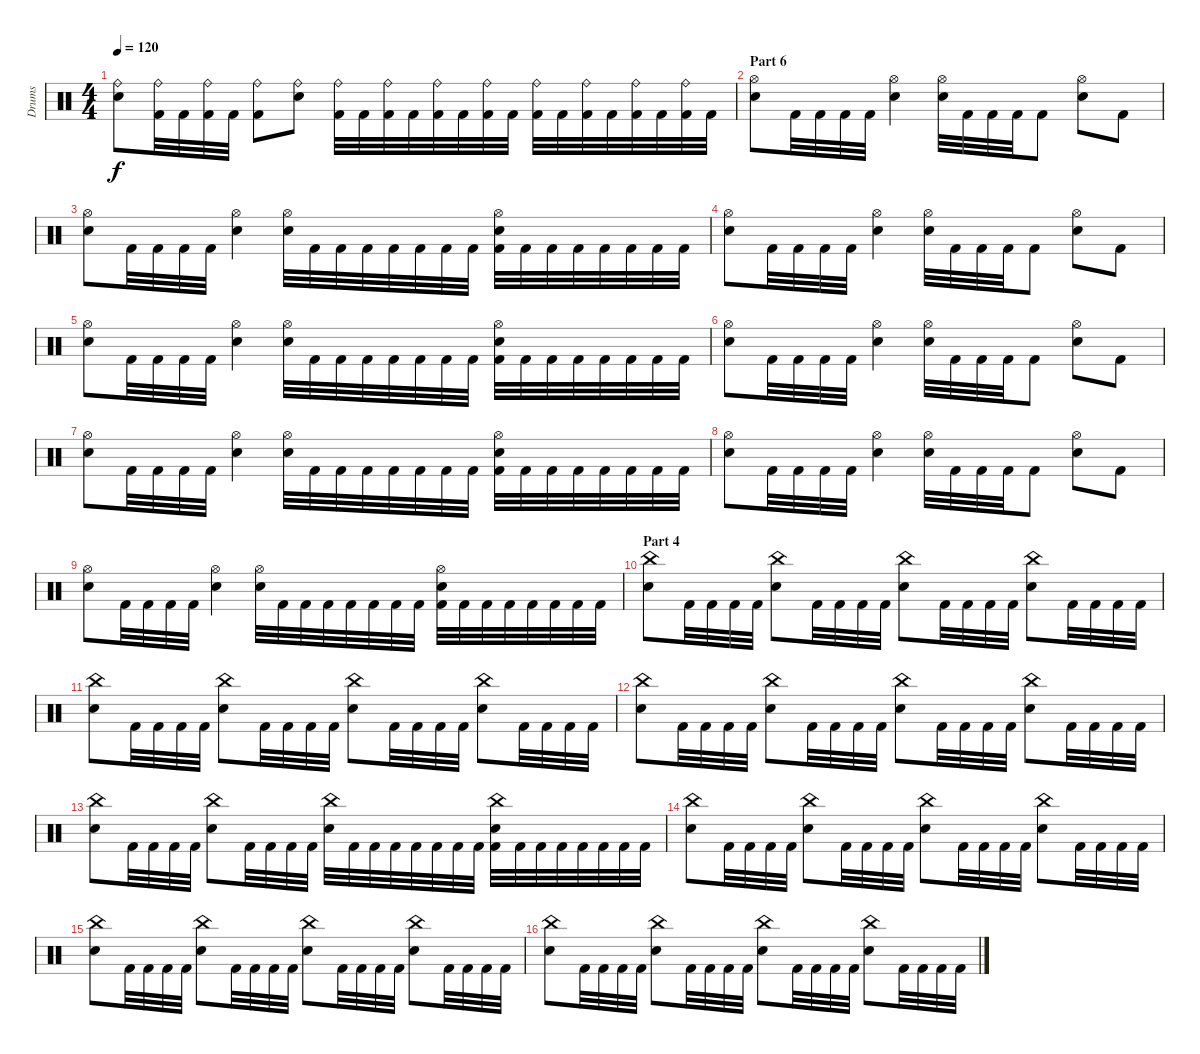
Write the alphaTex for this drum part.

\track ("Drums" "Drums") {instrument percussion}
\staff {score}
\articulation defaults
\ts (4 4)
\tempo 120
\clef neutral
\ks c
("Ride (bell)" "Electric Snare (hit)").8{dy f} ("Ride (bell)" "Kick (hit) 2").32 "Kick (hit) 2".32 ("Ride (bell)" "Kick (hit) 2").32 "Kick (hit) 2".32 ("Ride (bell)" "Kick (hit) 2").8 ("Ride (bell)" "Electric Snare (hit)").8 ("Ride (bell)" "Kick (hit) 2").32 "Kick (hit) 2".32 ("Ride (bell)" "Kick (hit) 2").32 "Kick (hit) 2".32 ("Ride (bell)" "Kick (hit) 2").32 "Kick (hit) 2".32 ("Ride (bell)" "Kick (hit) 2").32 "Kick (hit) 2".32 ("Ride (bell)" "Kick (hit) 2").32 "Kick (hit) 2".32 ("Ride (bell)" "Kick (hit) 2").32 "Kick (hit) 2".32 ("Ride (bell)" "Kick (hit) 2").32 "Kick (hit) 2".32 ("Ride (bell)" "Kick (hit) 2").32 "Kick (hit) 2".32 |
\section ("" "Part 6")
("Hi-Hat (open)" "Electric Snare (hit)").8 "Kick (hit) 2".32 "Kick (hit) 2".32 "Kick (hit) 2".32 "Kick (hit) 2".32 ("Hi-Hat (open)" "Electric Snare (hit)").4 ("Hi-Hat (open)" "Electric Snare (hit)").32 "Kick (hit) 2".32 "Kick (hit) 2".32 "Kick (hit) 2".32 "Kick (hit) 2".8 ("Hi-Hat (open)" "Electric Snare (hit)").8 "Kick (hit) 2".8 |
("Hi-Hat (open)" "Electric Snare (hit)").8 "Kick (hit) 2".32 "Kick (hit) 2".32 "Kick (hit) 2".32 "Kick (hit) 2".32 ("Hi-Hat (open)" "Electric Snare (hit)").4 ("Hi-Hat (open)" "Electric Snare (hit)").32 "Kick (hit) 2".32 "Kick (hit) 2".32 "Kick (hit) 2".32 "Kick (hit) 2".32 "Kick (hit) 2".32 "Kick (hit) 2".32 "Kick (hit) 2".32 ("Hi-Hat (open)" "Electric Snare (hit)" "Kick (hit) 2").32 "Kick (hit) 2".32 "Kick (hit) 2".32 "Kick (hit) 2".32 "Kick (hit) 2".32 "Kick (hit) 2".32 "Kick (hit) 2".32 "Kick (hit) 2".32 |
("Hi-Hat (open)" "Electric Snare (hit)").8 "Kick (hit) 2".32 "Kick (hit) 2".32 "Kick (hit) 2".32 "Kick (hit) 2".32 ("Hi-Hat (open)" "Electric Snare (hit)").4 ("Hi-Hat (open)" "Electric Snare (hit)").32 "Kick (hit) 2".32 "Kick (hit) 2".32 "Kick (hit) 2".32 "Kick (hit) 2".8 ("Hi-Hat (open)" "Electric Snare (hit)").8 "Kick (hit) 2".8 |
("Hi-Hat (open)" "Electric Snare (hit)").8 "Kick (hit) 2".32 "Kick (hit) 2".32 "Kick (hit) 2".32 "Kick (hit) 2".32 ("Hi-Hat (open)" "Electric Snare (hit)").4 ("Hi-Hat (open)" "Electric Snare (hit)").32 "Kick (hit) 2".32 "Kick (hit) 2".32 "Kick (hit) 2".32 "Kick (hit) 2".32 "Kick (hit) 2".32 "Kick (hit) 2".32 "Kick (hit) 2".32 ("Hi-Hat (open)" "Electric Snare (hit)" "Kick (hit) 2").32 "Kick (hit) 2".32 "Kick (hit) 2".32 "Kick (hit) 2".32 "Kick (hit) 2".32 "Kick (hit) 2".32 "Kick (hit) 2".32 "Kick (hit) 2".32 |
("Hi-Hat (open)" "Electric Snare (hit)").8 "Kick (hit) 2".32 "Kick (hit) 2".32 "Kick (hit) 2".32 "Kick (hit) 2".32 ("Hi-Hat (open)" "Electric Snare (hit)").4 ("Hi-Hat (open)" "Electric Snare (hit)").32 "Kick (hit) 2".32 "Kick (hit) 2".32 "Kick (hit) 2".32 "Kick (hit) 2".8 ("Hi-Hat (open)" "Electric Snare (hit)").8 "Kick (hit) 2".8 |
("Hi-Hat (open)" "Electric Snare (hit)").8 "Kick (hit) 2".32 "Kick (hit) 2".32 "Kick (hit) 2".32 "Kick (hit) 2".32 ("Hi-Hat (open)" "Electric Snare (hit)").4 ("Hi-Hat (open)" "Electric Snare (hit)").32 "Kick (hit) 2".32 "Kick (hit) 2".32 "Kick (hit) 2".32 "Kick (hit) 2".32 "Kick (hit) 2".32 "Kick (hit) 2".32 "Kick (hit) 2".32 ("Hi-Hat (open)" "Electric Snare (hit)" "Kick (hit) 2").32 "Kick (hit) 2".32 "Kick (hit) 2".32 "Kick (hit) 2".32 "Kick (hit) 2".32 "Kick (hit) 2".32 "Kick (hit) 2".32 "Kick (hit) 2".32 |
("Hi-Hat (open)" "Electric Snare (hit)").8 "Kick (hit) 2".32 "Kick (hit) 2".32 "Kick (hit) 2".32 "Kick (hit) 2".32 ("Hi-Hat (open)" "Electric Snare (hit)").4 ("Hi-Hat (open)" "Electric Snare (hit)").32 "Kick (hit) 2".32 "Kick (hit) 2".32 "Kick (hit) 2".32 "Kick (hit) 2".8 ("Hi-Hat (open)" "Electric Snare (hit)").8 "Kick (hit) 2".8 |
("Hi-Hat (open)" "Electric Snare (hit)").8 "Kick (hit) 2".32 "Kick (hit) 2".32 "Kick (hit) 2".32 "Kick (hit) 2".32 ("Hi-Hat (open)" "Electric Snare (hit)").4 ("Hi-Hat (open)" "Electric Snare (hit)").32 "Kick (hit) 2".32 "Kick (hit) 2".32 "Kick (hit) 2".32 "Kick (hit) 2".32 "Kick (hit) 2".32 "Kick (hit) 2".32 "Kick (hit) 2".32 ("Hi-Hat (open)" "Electric Snare (hit)" "Kick (hit) 2").32 "Kick (hit) 2".32 "Kick (hit) 2".32 "Kick (hit) 2".32 "Kick (hit) 2".32 "Kick (hit) 2".32 "Kick (hit) 2".32 "Kick (hit) 2".32 |
\section ("" "Part 4")
("China (hit)" "Electric Snare (hit)").8 "Kick (hit) 2".32 "Kick (hit) 2".32 "Kick (hit) 2".32 "Kick (hit) 2".32 ("China (hit)" "Electric Snare (hit)").8 "Kick (hit) 2".32 "Kick (hit) 2".32 "Kick (hit) 2".32 "Kick (hit) 2".32 ("China (hit)" "Electric Snare (hit)").8 "Kick (hit) 2".32 "Kick (hit) 2".32 "Kick (hit) 2".32 "Kick (hit) 2".32 ("China (hit)" "Electric Snare (hit)").8 "Kick (hit) 2".32 "Kick (hit) 2".32 "Kick (hit) 2".32 "Kick (hit) 2".32 |
("China (hit)" "Electric Snare (hit)").8 "Kick (hit) 2".32 "Kick (hit) 2".32 "Kick (hit) 2".32 "Kick (hit) 2".32 ("China (hit)" "Electric Snare (hit)").8 "Kick (hit) 2".32 "Kick (hit) 2".32 "Kick (hit) 2".32 "Kick (hit) 2".32 ("China (hit)" "Electric Snare (hit)").8 "Kick (hit) 2".32 "Kick (hit) 2".32 "Kick (hit) 2".32 "Kick (hit) 2".32 ("China (hit)" "Electric Snare (hit)").8 "Kick (hit) 2".32 "Kick (hit) 2".32 "Kick (hit) 2".32 "Kick (hit) 2".32 |
("China (hit)" "Electric Snare (hit)").8 "Kick (hit) 2".32 "Kick (hit) 2".32 "Kick (hit) 2".32 "Kick (hit) 2".32 ("China (hit)" "Electric Snare (hit)").8 "Kick (hit) 2".32 "Kick (hit) 2".32 "Kick (hit) 2".32 "Kick (hit) 2".32 ("China (hit)" "Electric Snare (hit)").8 "Kick (hit) 2".32 "Kick (hit) 2".32 "Kick (hit) 2".32 "Kick (hit) 2".32 ("China (hit)" "Electric Snare (hit)").8 "Kick (hit) 2".32 "Kick (hit) 2".32 "Kick (hit) 2".32 "Kick (hit) 2".32 |
("China (hit)" "Electric Snare (hit)").8 "Kick (hit) 2".32 "Kick (hit) 2".32 "Kick (hit) 2".32 "Kick (hit) 2".32 ("China (hit)" "Electric Snare (hit)").8 "Kick (hit) 2".32 "Kick (hit) 2".32 "Kick (hit) 2".32 "Kick (hit) 2".32 ("China (hit)" "Electric Snare (hit)").32 "Kick (hit) 2".32 "Kick (hit) 2".32 "Kick (hit) 2".32 "Kick (hit) 2".32 "Kick (hit) 2".32 "Kick (hit) 2".32 "Kick (hit) 2".32 ("China (hit)" "Electric Snare (hit)" "Kick (hit) 2").32 "Kick (hit) 2".32 "Kick (hit) 2".32 "Kick (hit) 2".32 "Kick (hit) 2".32 "Kick (hit) 2".32 "Kick (hit) 2".32 "Kick (hit) 2".32 |
("China (hit)" "Electric Snare (hit)").8 "Kick (hit) 2".32 "Kick (hit) 2".32 "Kick (hit) 2".32 "Kick (hit) 2".32 ("China (hit)" "Electric Snare (hit)").8 "Kick (hit) 2".32 "Kick (hit) 2".32 "Kick (hit) 2".32 "Kick (hit) 2".32 ("China (hit)" "Electric Snare (hit)").8 "Kick (hit) 2".32 "Kick (hit) 2".32 "Kick (hit) 2".32 "Kick (hit) 2".32 ("China (hit)" "Electric Snare (hit)").8 "Kick (hit) 2".32 "Kick (hit) 2".32 "Kick (hit) 2".32 "Kick (hit) 2".32 |
("China (hit)" "Electric Snare (hit)").8 "Kick (hit) 2".32 "Kick (hit) 2".32 "Kick (hit) 2".32 "Kick (hit) 2".32 ("China (hit)" "Electric Snare (hit)").8 "Kick (hit) 2".32 "Kick (hit) 2".32 "Kick (hit) 2".32 "Kick (hit) 2".32 ("China (hit)" "Electric Snare (hit)").8 "Kick (hit) 2".32 "Kick (hit) 2".32 "Kick (hit) 2".32 "Kick (hit) 2".32 ("China (hit)" "Electric Snare (hit)").8 "Kick (hit) 2".32 "Kick (hit) 2".32 "Kick (hit) 2".32 "Kick (hit) 2".32 |
("China (hit)" "Electric Snare (hit)").8 "Kick (hit) 2".32 "Kick (hit) 2".32 "Kick (hit) 2".32 "Kick (hit) 2".32 ("China (hit)" "Electric Snare (hit)").8 "Kick (hit) 2".32 "Kick (hit) 2".32 "Kick (hit) 2".32 "Kick (hit) 2".32 ("China (hit)" "Electric Snare (hit)").8 "Kick (hit) 2".32 "Kick (hit) 2".32 "Kick (hit) 2".32 "Kick (hit) 2".32 ("China (hit)" "Electric Snare (hit)").8 "Kick (hit) 2".32 "Kick (hit) 2".32 "Kick (hit) 2".32 "Kick (hit) 2".32
